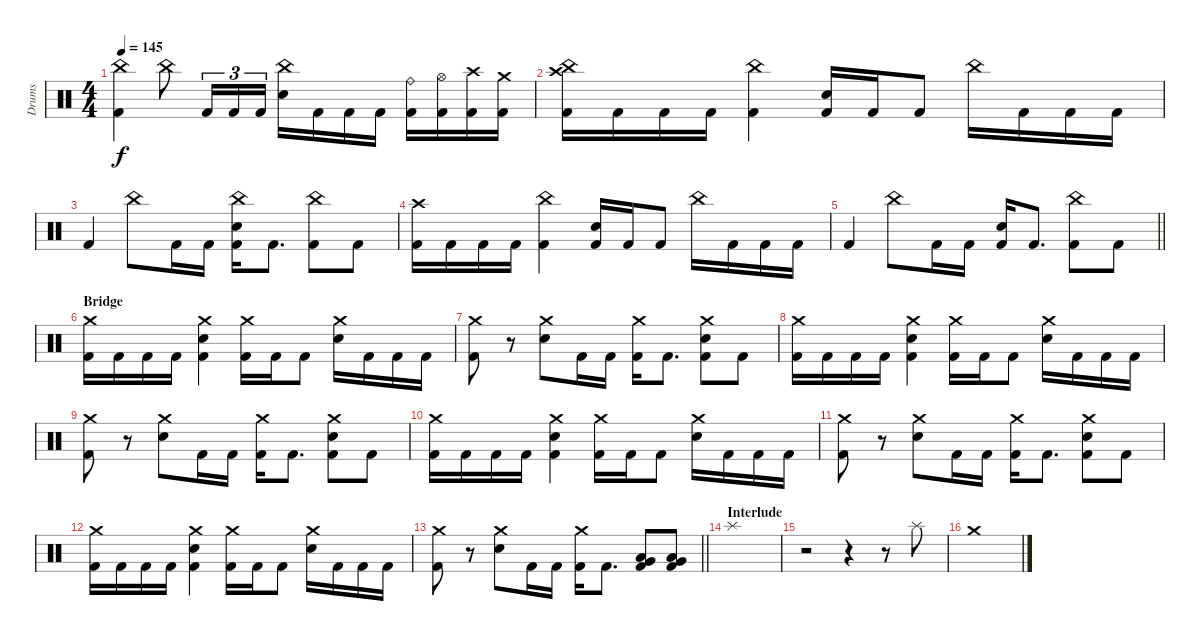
\track ("Drums" "Drums") {instrument percussion}
\staff {score}
\articulation defaults
\ts (4 4)
\tempo 145
\clef neutral
\ks c
("China (hit)" "Kick (hit) 2").4{dy f} "China (hit)".8 "Kick (hit) 2".16{tu (3 2)} "Kick (hit) 2".16{tu (3 2)} "Kick (hit) 2".16{tu (3 2)} ("China (hit)" "Electric Snare (hit)").16 "Kick (hit) 2".16 "Kick (hit) 2".16 "Kick (hit) 2".16 ("Ride (bell)" "Kick (hit) 2").16 ("Hi-Hat (open)" "Kick (hit) 2").16 ("Crash high (hit)" "Kick (hit) 2").16 ("Crash medium (hit)" "Kick (hit) 2").16 |
("China (hit)" "Crash high (hit)" "Kick (hit) 2").16 "Kick (hit) 2".16 "Kick (hit) 2".16 "Kick (hit) 2".16 ("China (hit)" "Kick (hit) 2").4 ("Electric Snare (hit)" "Kick (hit) 2").16 "Kick (hit) 2".16 "Kick (hit) 2".8 "China (hit)".16 "Kick (hit) 2".16 "Kick (hit) 2".16 "Kick (hit) 2".16 |
"Kick (hit) 2".4 "China (hit)".8 "Kick (hit) 2".16 "Kick (hit) 2".16 ("China (hit)" "Electric Snare (hit)" "Kick (hit) 2").16 "Kick (hit) 2".8{d} ("China (hit)" "Kick (hit) 2").8 "Kick (hit) 2".8 |
("Crash high (hit)" "Kick (hit) 2").16 "Kick (hit) 2".16 "Kick (hit) 2".16 "Kick (hit) 2".16 ("China (hit)" "Kick (hit) 2").4 ("Electric Snare (hit)" "Kick (hit) 2").16 "Kick (hit) 2".16 "Kick (hit) 2".8 "China (hit)".16 "Kick (hit) 2".16 "Kick (hit) 2".16 "Kick (hit) 2".16 |
\barLineRight lightlight "Kick (hit) 2".4 "China (hit)".8 "Kick (hit) 2".16 "Kick (hit) 2".16
("Electric Snare (hit)" "Kick (hit) 2").16 "Kick (hit) 2".8{d} ("China (hit)" "Kick (hit) 2").8 "Kick (hit) 2".8 |
\section ("" "Bridge")
("Crash medium (hit)" "Kick (hit) 2").16 "Kick (hit) 2".16 "Kick (hit) 2".16 "Kick (hit) 2".16 ("Crash medium (hit)" "Electric Snare (hit)" "Kick (hit) 2").4 ("Crash medium (hit)" "Kick (hit) 2").16 "Kick (hit) 2".16 "Kick (hit) 2".8 ("Crash medium (hit)" "Electric Snare (hit)").16 "Kick (hit) 2".16 "Kick (hit) 2".16 "Kick (hit) 2".16 |
("Crash medium (hit)" "Kick (hit) 2").8 r.8 ("Crash medium (hit)" "Electric Snare (hit)").8 "Kick (hit) 2".16 "Kick (hit) 2".16 ("Crash medium (hit)" "Kick (hit) 2").16 "Kick (hit) 2".8{d} ("Crash medium (hit)" "Electric Snare (hit)" "Kick (hit) 2").8 "Kick (hit) 2".8 |
("Crash medium (hit)" "Kick (hit) 2").16 "Kick (hit) 2".16 "Kick (hit) 2".16 "Kick (hit) 2".16 ("Crash medium (hit)" "Electric Snare (hit)" "Kick (hit) 2").4 ("Crash medium (hit)" "Kick (hit) 2").16 "Kick (hit) 2".16 "Kick (hit) 2".8 ("Crash medium (hit)" "Electric Snare (hit)").16 "Kick (hit) 2".16 "Kick (hit) 2".16 "Kick (hit) 2".16 |
("Crash medium (hit)" "Kick (hit) 2").8 r.8 ("Crash medium (hit)" "Electric Snare (hit)").8 "Kick (hit) 2".16 "Kick (hit) 2".16 ("Crash medium (hit)" "Kick (hit) 2").16 "Kick (hit) 2".8{d} ("Crash medium (hit)" "Electric Snare (hit)" "Kick (hit) 2").8 "Kick (hit) 2".8 |
("Crash medium (hit)" "Kick (hit) 2").16 "Kick (hit) 2".16 "Kick (hit) 2".16 "Kick (hit) 2".16 ("Crash medium (hit)" "Electric Snare (hit)" "Kick (hit) 2").4 ("Crash medium (hit)" "Kick (hit) 2").16 "Kick (hit) 2".16 "Kick (hit) 2".8 ("Crash medium (hit)" "Electric Snare (hit)").16 "Kick (hit) 2".16 "Kick (hit) 2".16 "Kick (hit) 2".16 |
("Crash medium (hit)" "Kick (hit) 2").8 r.8 ("Crash medium (hit)" "Electric Snare (hit)").8 "Kick (hit) 2".16 "Kick (hit) 2".16 ("Crash medium (hit)" "Kick (hit) 2").16 "Kick (hit) 2".8{d} ("Crash medium (hit)" "Electric Snare (hit)" "Kick (hit) 2").8 "Kick (hit) 2".8 |
("Crash medium (hit)" "Kick (hit) 2").16 "Kick (hit) 2".16 "Kick (hit) 2".16 "Kick (hit) 2".16 ("Crash medium (hit)" "Electric Snare (hit)" "Kick (hit) 2").4 ("Crash medium (hit)" "Kick (hit) 2").16 "Kick (hit) 2".16 "Kick (hit) 2".8 ("Crash medium (hit)" "Electric Snare (hit)").16 "Kick (hit) 2".16 "Kick (hit) 2".16 "Kick (hit) 2".16 |
\barLineRight lightlight
("Crash medium (hit)" "Kick (hit) 2").8 r.8 ("Crash medium (hit)" "Electric Snare (hit)").8 "Kick (hit) 2".16 "Kick (hit) 2".16 ("Crash medium (hit)" "Kick (hit) 2").16 "Kick (hit) 2".8{d} ("Very Low Tom (hit)" "Low Floor Tom (hit)" "Kick (hit) 2").8 ("Very Low Tom (hit)" "Low Floor Tom (hit)" "Kick (hit) 2").8 |
\section ("" "Interlude")
"Splash (hit)".1 |
r.2 r.4 r.8 "Splash (hit)".8 |
"Crash medium (hit)".1
